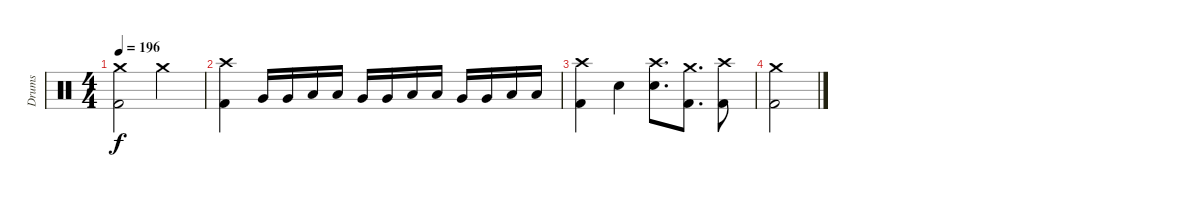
\track ("Drums" "Drums") {instrument percussion}
\staff
\articulation defaults
\ts (4 4)
\tempo 196
\clef neutral
\ks c
("Crash medium (hit)" "Kick (hit) 2").2{dy f} "Crash medium (hit)".2 |
("Crash high (hit)" "Kick (hit) 2").4 "Very Low Tom (hit)".16 "Very Low Tom (hit)".16 "Low Floor Tom (hit)".16 "Low Floor Tom (hit)".16 "Very Low Tom (hit)".16 "Very Low Tom (hit)".16 "Low Floor Tom (hit)".16 "Low Floor Tom (hit)".16 "Very Low Tom (hit)".16 "Very Low Tom (hit)".16 "Low Floor Tom (hit)".16 "Low Floor Tom (hit)".16 |
("Crash high (hit)" "Kick (hit) 2").4 "Electric Snare (hit)".4 ("Crash high (hit)" "Electric Snare (hit)").8{d} ("Crash medium (hit)" "Kick (hit) 2").8{d} ("Crash high (hit)" "Kick (hit) 2").8 |
("Crash medium (hit)" "Kick (hit) 2").2
